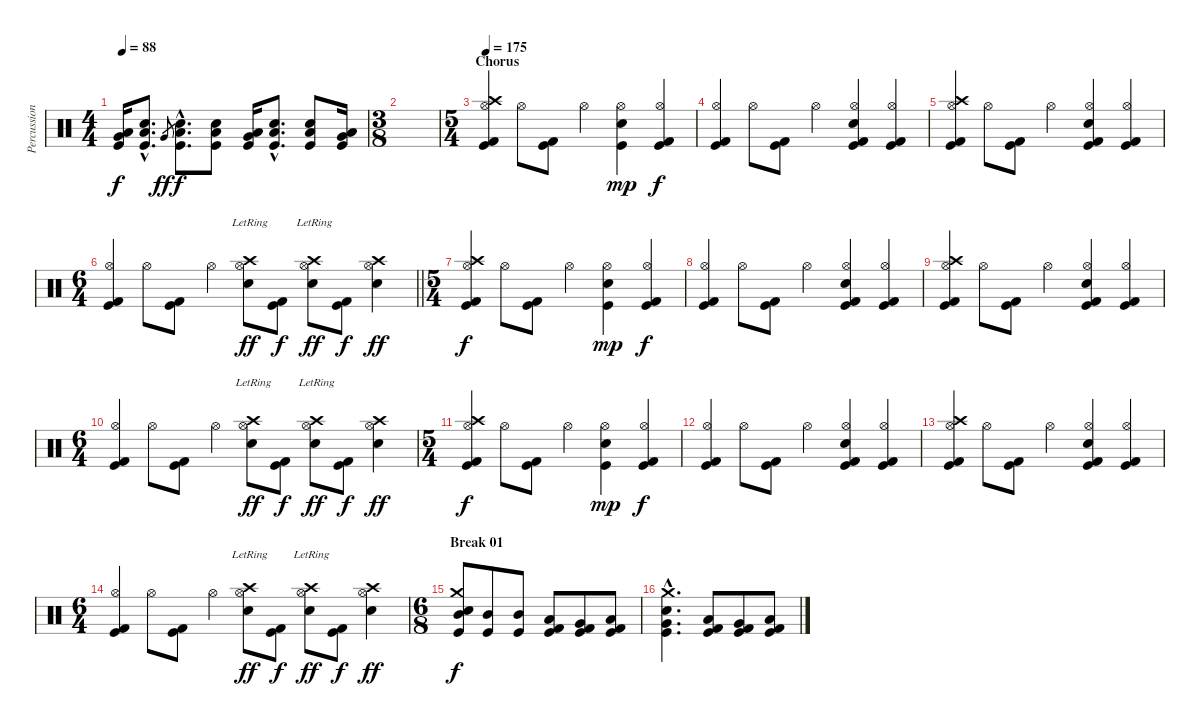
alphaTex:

\track ("Percussion" "Percussion") {instrument percussion}
\staff {score}
\articulation defaults
\ts (4 4)
\tempo 88
\clef neutral
\ks c
("Very Low Tom (hit)" "Low Tom (hit)" "Kick (hit)").16{dy f} ("Electric Snare (hit)"{hac} "Low Tom (hit)"{hac} "Kick (hit)"{hac}).8{d} "Very Low Tom (hit)".8{gr dy ff} ("Electric Snare (hit)"{hac} "Low Tom (hit)"{hac} "Kick (hit)"{hac}).8{d dy f} ("Electric Snare (hit)" "Low Tom (hit)" "Kick (hit)").8 ("Very Low Tom (hit)" "Low Tom (hit)" "Kick (hit)").16 ("Electric Snare (hit)"{hac} "Low Tom (hit)"{hac} "Kick (hit)"{hac}).8{d} ("Electric Snare (hit)" "Low Tom (hit)" "Kick (hit)").8 ("Very Low Tom (hit)" "Low Tom (hit)" "Kick (hit)").16 |
\ts (3 8)
|
\ts (5 4)
\section ("" "Chorus")
\tempo 175
("Hi-Hat (open)" "Crash high (hit)" "Kick (hit) 2" "Kick (hit)").4{volume 13} "Hi-Hat (open)".8 ("Kick (hit) 2" "Kick (hit)").8 "Hi-Hat (open)".4 ("Hi-Hat (open)" "Electric Snare (hit)" "Kick (hit)").4{dy mp} ("Hi-Hat (open)" "Kick (hit) 2" "Kick (hit)").4{dy f} |
("Hi-Hat (open)" "Kick (hit) 2" "Kick (hit)").4 "Hi-Hat (open)".8 ("Kick (hit) 2" "Kick (hit)").8 "Hi-Hat (open)".4 ("Hi-Hat (open)" "Electric Snare (hit)" "Kick (hit) 2" "Kick (hit)").4 ("Hi-Hat (open)" "Kick (hit) 2" "Kick (hit)").4 |
("Hi-Hat (open)" "Crash high (hit)" "Kick (hit) 2" "Kick (hit)").4 "Hi-Hat (open)".8 ("Kick (hit) 2" "Kick (hit)").8 "Hi-Hat (open)".4 ("Hi-Hat (open)" "Electric Snare (hit)" "Kick (hit) 2" "Kick (hit)").4 ("Hi-Hat (open)" "Kick (hit) 2" "Kick (hit)").4 |
\ts (6 4)
\barLineRight lightlight
("Hi-Hat (open)" "Kick (hit) 2" "Kick (hit)").4 "Hi-Hat (open)".8 ("Kick (hit) 2" "Kick (hit)").8 "Hi-Hat (open)".4 ("Hi-Hat (open)"{lr} "Crash high (hit)"{lr} "Electric Snare (hit)"{lr}).8{dy ff} ("Kick (hit) 2" "Kick (hit)").8{dy f} ("Hi-Hat (open)"{lr} "Crash high (hit)"{lr} "Electric Snare (hit)"{lr}).8{dy ff} ("Kick (hit) 2" "Kick (hit)").8{dy f} ("Hi-Hat (open)" "Crash high (hit)" "Electric Snare (hit)").4{dy ff} |
\ts (5 4)
("Hi-Hat (open)" "Crash high (hit)" "Kick (hit) 2" "Kick (hit)").4{dy f} "Hi-Hat (open)".8 ("Kick (hit) 2" "Kick (hit)").8 "Hi-Hat (open)".4 ("Hi-Hat (open)" "Electric Snare (hit)" "Kick (hit)").4{dy mp} ("Hi-Hat (open)" "Kick (hit) 2" "Kick (hit)").4{dy f} |
("Hi-Hat (open)" "Kick (hit) 2" "Kick (hit)").4 "Hi-Hat (open)".8 ("Kick (hit) 2" "Kick (hit)").8 "Hi-Hat (open)".4 ("Hi-Hat (open)" "Electric Snare (hit)" "Kick (hit) 2" "Kick (hit)").4 ("Hi-Hat (open)" "Kick (hit) 2" "Kick (hit)").4 |
("Hi-Hat (open)" "Crash high (hit)" "Kick (hit) 2" "Kick (hit)").4 "Hi-Hat (open)".8 ("Kick (hit) 2" "Kick (hit)").8 "Hi-Hat (open)".4 ("Hi-Hat (open)" "Electric Snare (hit)" "Kick (hit) 2" "Kick (hit)").4 ("Hi-Hat (open)" "Kick (hit) 2" "Kick (hit)").4 |
\ts (6 4)
("Hi-Hat (open)" "Kick (hit) 2" "Kick (hit)").4 "Hi-Hat (open)".8 ("Kick (hit) 2" "Kick (hit)").8 "Hi-Hat (open)".4 ("Hi-Hat (open)"{lr} "Crash high (hit)"{lr} "Electric Snare (hit)"{lr}).8{dy ff} ("Kick (hit) 2" "Kick (hit)").8{dy f} ("Hi-Hat (open)"{lr} "Crash high (hit)"{lr} "Electric Snare (hit)"{lr}).8{dy ff} ("Kick (hit) 2" "Kick (hit)").8{dy f} ("Hi-Hat (open)" "Crash high (hit)" "Electric Snare (hit)").4{dy ff} |
\ts (5 4)
("Hi-Hat (open)" "Crash high (hit)" "Kick (hit) 2" "Kick (hit)").4{dy f} "Hi-Hat (open)".8 ("Kick (hit) 2" "Kick (hit)").8 "Hi-Hat (open)".4 ("Hi-Hat (open)" "Electric Snare (hit)" "Kick (hit)").4{dy mp} ("Hi-Hat (open)" "Kick (hit) 2" "Kick (hit)").4{dy f} |
("Hi-Hat (open)" "Kick (hit) 2" "Kick (hit)").4 "Hi-Hat (open)".8 ("Kick (hit) 2" "Kick (hit)").8 "Hi-Hat (open)".4 ("Hi-Hat (open)" "Electric Snare (hit)" "Kick (hit) 2" "Kick (hit)").4 ("Hi-Hat (open)" "Kick (hit) 2" "Kick (hit)").4 |
("Hi-Hat (open)" "Crash high (hit)" "Kick (hit) 2" "Kick (hit)").4 "Hi-Hat (open)".8 ("Kick (hit) 2" "Kick (hit)").8 "Hi-Hat (open)".4 ("Hi-Hat (open)" "Electric Snare (hit)" "Kick (hit) 2" "Kick (hit)").4 ("Hi-Hat (open)" "Kick (hit) 2" "Kick (hit)").4 |
\ts (6 4)
("Hi-Hat (open)" "Kick (hit) 2" "Kick (hit)").4 "Hi-Hat (open)".8 ("Kick (hit) 2" "Kick (hit)").8 "Hi-Hat (open)".4 ("Hi-Hat (open)"{lr} "Crash high (hit)"{lr} "Electric Snare (hit)"{lr}).8{dy ff} ("Kick (hit) 2" "Kick (hit)").8{dy f} ("Hi-Hat (open)"{lr} "Crash high (hit)"{lr} "Electric Snare (hit)"{lr}).8{dy ff} ("Kick (hit) 2" "Kick (hit)").8{dy f} ("Hi-Hat (open)" "Crash high (hit)" "Electric Snare (hit)").4{dy ff} |
\ts (6 8)
\section ("" "Break 01")
("Crash medium (hit)" "Electric Snare (hit)" "Mid Tom (hit)" "Kick (hit)").8{dy f} ("Mid Tom (hit)" "Kick (hit)").8 ("Mid Tom (hit)" "Kick (hit)").8 ("Low Tom (hit)" "Kick (hit) 2" "Kick (hit)").8 ("Very Low Tom (hit)" "Kick (hit) 2" "Kick (hit)").8 ("Low Floor Tom (hit)" "Kick (hit) 2" "Kick (hit)").8 |
("Crash medium (hit)"{hac} "Electric Snare (hit)"{hac} "Very Low Tom (hit)"{hac} "Kick (hit)"{hac}).4{d} ("Low Tom (hit)" "Kick (hit) 2" "Kick (hit)").8 ("Very Low Tom (hit)" "Kick (hit) 2" "Kick (hit)").8 ("Low Floor Tom (hit)" "Kick (hit) 2" "Kick (hit)").8
